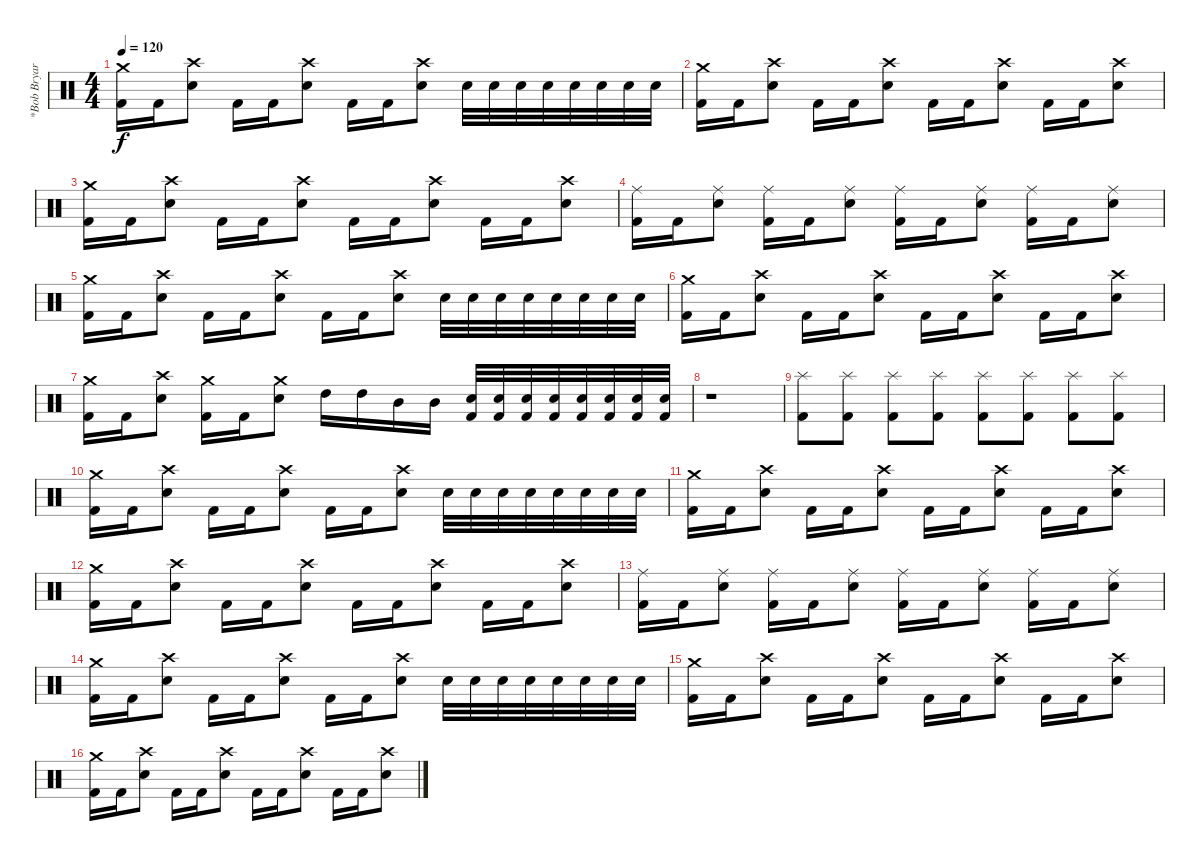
\track ("*Bob Bryar" "*Bob Bryar") {instrument percussion}
\staff {score}
\articulation defaults
\ts (4 4)
\tempo 120
\clef neutral
\ks c
("Crash medium (hit)" "Kick (hit) 2").16{dy f} "Kick (hit) 2".16 ("Crash high (hit)" "Electric Snare (hit)").8 "Kick (hit) 2".16 "Kick (hit) 2".16 ("Crash high (hit)" "Electric Snare (hit)").8 "Kick (hit) 2".16 "Kick (hit) 2".16 ("Crash high (hit)" "Electric Snare (hit)").8 "Electric Snare (hit)".32 "Electric Snare (hit)".32 "Electric Snare (hit)".32 "Electric Snare (hit)".32 "Electric Snare (hit)".32 "Electric Snare (hit)".32 "Electric Snare (hit)".32 "Electric Snare (hit)".32 |
("Crash medium (hit)" "Kick (hit) 2").16 "Kick (hit) 2".16 ("Crash high (hit)" "Electric Snare (hit)").8 "Kick (hit) 2".16 "Kick (hit) 2".16 ("Crash high (hit)" "Electric Snare (hit)").8 "Kick (hit) 2".16 "Kick (hit) 2".16 ("Crash high (hit)" "Electric Snare (hit)").8 "Kick (hit) 2".16 "Kick (hit) 2".16 ("Crash high (hit)" "Electric Snare (hit)").8 |
("Crash medium (hit)" "Kick (hit) 2").16 "Kick (hit) 2".16 ("Crash high (hit)" "Electric Snare (hit)").8 "Kick (hit) 2".16 "Kick (hit) 2".16 ("Crash high (hit)" "Electric Snare (hit)").8 "Kick (hit) 2".16 "Kick (hit) 2".16 ("Crash high (hit)" "Electric Snare (hit)").8 "Kick (hit) 2".16 "Kick (hit) 2".16 ("Crash high (hit)" "Electric Snare (hit)").8 |
("Ride (middle)" "Kick (hit) 2").16 "Kick (hit) 2".16 ("Ride (middle)" "Electric Snare (hit)").8 ("Ride (middle)" "Kick (hit) 2").16 "Kick (hit) 2".16 ("Ride (middle)" "Electric Snare (hit)").8 ("Ride (middle)" "Kick (hit) 2").16 "Kick (hit) 2".16 ("Ride (middle)" "Electric Snare (hit)").8 ("Ride (middle)" "Kick (hit) 2").16 "Kick (hit) 2".16 ("Ride (middle)" "Electric Snare (hit)").8 |
("Crash medium (hit)" "Kick (hit) 2").16 "Kick (hit) 2".16 ("Crash high (hit)" "Electric Snare (hit)").8 "Kick (hit) 2".16 "Kick (hit) 2".16 ("Crash high (hit)" "Electric Snare (hit)").8 "Kick (hit) 2".16 "Kick (hit) 2".16 ("Crash high (hit)" "Electric Snare (hit)").8 "Electric Snare (hit)".32 "Electric Snare (hit)".32 "Electric Snare (hit)".32 "Electric Snare (hit)".32 "Electric Snare (hit)".32 "Electric Snare (hit)".32 "Electric Snare (hit)".32 "Electric Snare (hit)".32 |
("Crash medium (hit)" "Kick (hit) 2").16 "Kick (hit) 2".16 ("Crash high (hit)" "Electric Snare (hit)").8 "Kick (hit) 2".16 "Kick (hit) 2".16 ("Crash high (hit)" "Electric Snare (hit)").8 "Kick (hit) 2".16 "Kick (hit) 2".16 ("Crash high (hit)" "Electric Snare (hit)").8 "Kick (hit) 2".16 "Kick (hit) 2".16 ("Crash high (hit)" "Electric Snare (hit)").8 |
("Crash medium (hit)" "Kick (hit) 2").16 "Kick (hit) 2".16 ("Crash high (hit)" "Electric Snare (hit)").8 ("Crash medium (hit)" "Kick (hit) 2").16 "Kick (hit) 2".16 ("Crash medium (hit)" "Electric Snare (hit)").8 "High Tom (hit)".16 "High Tom (hit)".16 "Mid Tom (hit)".16 "Mid Tom (hit)".16 ("Electric Snare (hit)" "Kick (hit) 2").32 ("Electric Snare (hit)" "Kick (hit) 2").32 ("Electric Snare (hit)" "Kick (hit) 2").32 ("Electric Snare (hit)" "Kick (hit) 2").32 ("Electric Snare (hit)" "Kick (hit) 2").32 ("Electric Snare (hit)" "Kick (hit) 2").32 ("Electric Snare (hit)" "Kick (hit) 2").32 ("Electric Snare (hit)" "Kick (hit) 2").32 |
r.1 |
("Splash (hit)" "Kick (hit) 2").8 ("Splash (hit)" "Kick (hit) 2").8 ("Splash (hit)" "Kick (hit) 2").8 ("Splash (hit)" "Kick (hit) 2").8 ("Splash (hit)" "Kick (hit) 2").8 ("Splash (hit)" "Kick (hit) 2").8 ("Splash (hit)" "Kick (hit) 2").8 ("Splash (hit)" "Kick (hit) 2").8 |
("Crash medium (hit)" "Kick (hit) 2").16 "Kick (hit) 2".16 ("Crash high (hit)" "Electric Snare (hit)").8 "Kick (hit) 2".16 "Kick (hit) 2".16 ("Crash high (hit)" "Electric Snare (hit)").8 "Kick (hit) 2".16 "Kick (hit) 2".16 ("Crash high (hit)" "Electric Snare (hit)").8 "Electric Snare (hit)".32 "Electric Snare (hit)".32 "Electric Snare (hit)".32 "Electric Snare (hit)".32 "Electric Snare (hit)".32 "Electric Snare (hit)".32 "Electric Snare (hit)".32 "Electric Snare (hit)".32 |
("Crash medium (hit)" "Kick (hit) 2").16 "Kick (hit) 2".16 ("Crash high (hit)" "Electric Snare (hit)").8 "Kick (hit) 2".16 "Kick (hit) 2".16 ("Crash high (hit)" "Electric Snare (hit)").8 "Kick (hit) 2".16 "Kick (hit) 2".16 ("Crash high (hit)" "Electric Snare (hit)").8 "Kick (hit) 2".16 "Kick (hit) 2".16 ("Crash high (hit)" "Electric Snare (hit)").8 |
("Crash medium (hit)" "Kick (hit) 2").16 "Kick (hit) 2".16 ("Crash high (hit)" "Electric Snare (hit)").8 "Kick (hit) 2".16 "Kick (hit) 2".16 ("Crash high (hit)" "Electric Snare (hit)").8 "Kick (hit) 2".16 "Kick (hit) 2".16 ("Crash high (hit)" "Electric Snare (hit)").8 "Kick (hit) 2".16 "Kick (hit) 2".16 ("Crash high (hit)" "Electric Snare (hit)").8 |
("Ride (middle)" "Kick (hit) 2").16 "Kick (hit) 2".16 ("Ride (middle)" "Electric Snare (hit)").8 ("Ride (middle)" "Kick (hit) 2").16 "Kick (hit) 2".16 ("Ride (middle)" "Electric Snare (hit)").8 ("Ride (middle)" "Kick (hit) 2").16 "Kick (hit) 2".16 ("Ride (middle)" "Electric Snare (hit)").8 ("Ride (middle)" "Kick (hit) 2").16 "Kick (hit) 2".16 ("Ride (middle)" "Electric Snare (hit)").8 |
("Crash medium (hit)" "Kick (hit) 2").16 "Kick (hit) 2".16 ("Crash high (hit)" "Electric Snare (hit)").8 "Kick (hit) 2".16 "Kick (hit) 2".16 ("Crash high (hit)" "Electric Snare (hit)").8 "Kick (hit) 2".16 "Kick (hit) 2".16 ("Crash high (hit)" "Electric Snare (hit)").8 "Electric Snare (hit)".32 "Electric Snare (hit)".32 "Electric Snare (hit)".32 "Electric Snare (hit)".32 "Electric Snare (hit)".32 "Electric Snare (hit)".32 "Electric Snare (hit)".32 "Electric Snare (hit)".32 |
("Crash medium (hit)" "Kick (hit) 2").16 "Kick (hit) 2".16 ("Crash high (hit)" "Electric Snare (hit)").8 "Kick (hit) 2".16 "Kick (hit) 2".16 ("Crash high (hit)" "Electric Snare (hit)").8 "Kick (hit) 2".16 "Kick (hit) 2".16 ("Crash high (hit)" "Electric Snare (hit)").8 "Kick (hit) 2".16 "Kick (hit) 2".16 ("Crash high (hit)" "Electric Snare (hit)").8 |
("Crash medium (hit)" "Kick (hit) 2").16 "Kick (hit) 2".16 ("Crash high (hit)" "Electric Snare (hit)").8 "Kick (hit) 2".16 "Kick (hit) 2".16 ("Crash high (hit)" "Electric Snare (hit)").8 "Kick (hit) 2".16 "Kick (hit) 2".16 ("Crash high (hit)" "Electric Snare (hit)").8 "Kick (hit) 2".16 "Kick (hit) 2".16 ("Crash high (hit)" "Electric Snare (hit)").8
